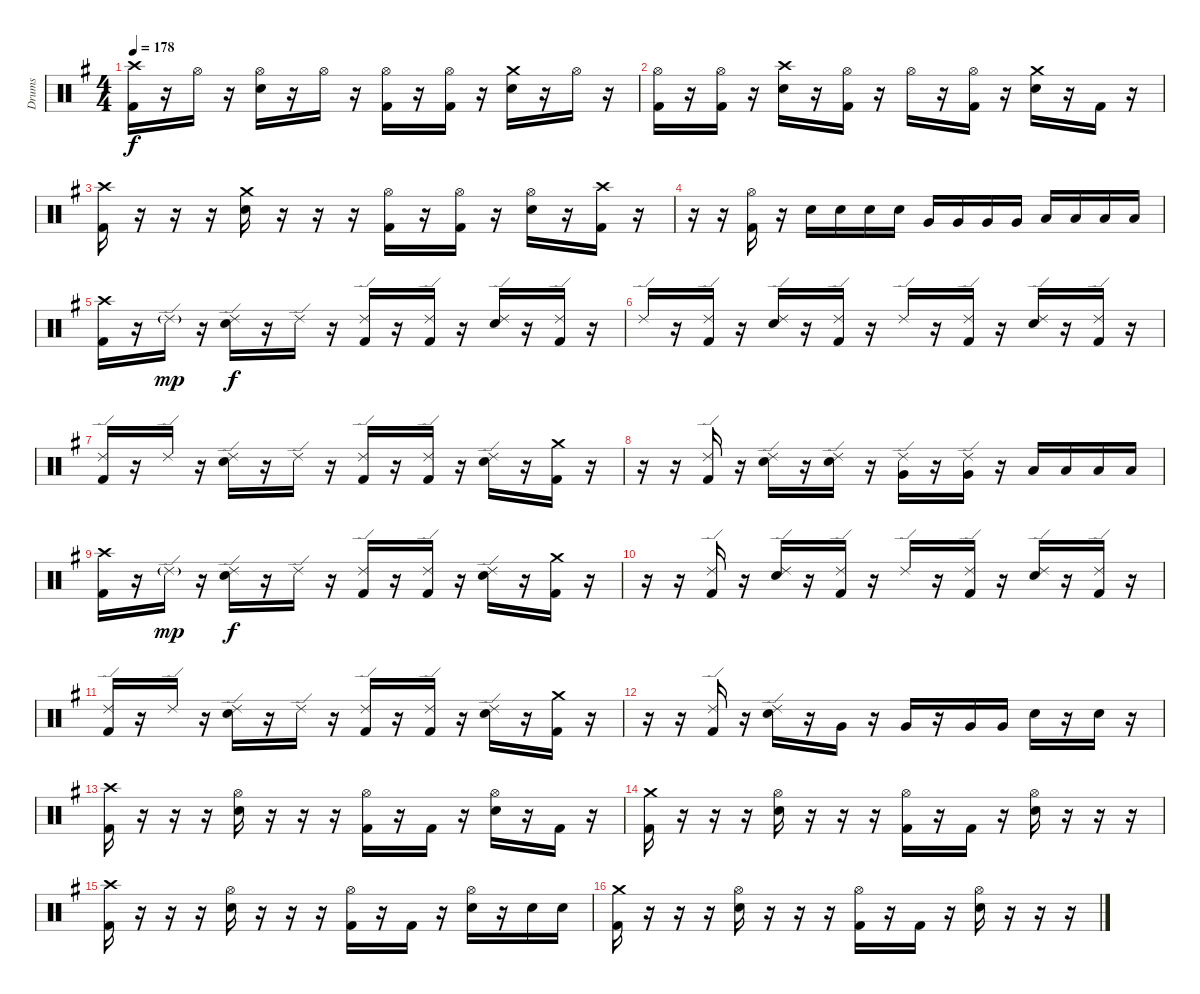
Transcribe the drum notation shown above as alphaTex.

\track ("Drums" "Drums") {instrument percussion}
\staff {score}
\articulation defaults
\ts (4 4)
\tempo 178
\clef neutral
\ks g
("Crash high (hit)" "Kick (hit) 2").16{dy f} r.16 "Hi-Hat (open)".16 r.16 ("Hi-Hat (open)" "Electric Snare (hit)").16 r.16 "Hi-Hat (open)".16 r.16 ("Hi-Hat (open)" "Kick (hit) 2").16 r.16 ("Hi-Hat (open)" "Kick (hit) 2").16 r.16 ("Crash medium (hit)" "Electric Snare (hit)").16 r.16 "Hi-Hat (open)".16 r.16 |
("Hi-Hat (open)" "Kick (hit) 2").16 r.16 ("Hi-Hat (open)" "Kick (hit) 2").16 r.16 ("Crash high (hit)" "Electric Snare (hit)").16 r.16 ("Hi-Hat (open)" "Kick (hit) 2").16 r.16 "Hi-Hat (open)".16 r.16 ("Hi-Hat (open)" "Kick (hit) 2").16 r.16 ("Crash medium (hit)" "Electric Snare (hit)").16 r.16 "Kick (hit) 2".16 r.16 |
("Crash high (hit)" "Kick (hit) 2").16 r.16 r.16 r.16 ("Crash medium (hit)" "Electric Snare (hit)").16 r.16 r.16 r.16 ("Hi-Hat (open)" "Kick (hit) 2").16 r.16 ("Hi-Hat (open)" "Kick (hit) 2").16 r.16 ("Hi-Hat (open)" "Electric Snare (hit)").16 r.16 ("Crash high (hit)" "Kick (hit) 2").16 r.16 |
r.16 r.16 ("Hi-Hat (open)" "Kick (hit) 2").16 r.16 "Electric Snare (hit)".16 "Electric Snare (hit)".16 "Electric Snare (hit)".16 "Electric Snare (hit)".16 "Very Low Tom (hit)".16 "Very Low Tom (hit)".16 "Very Low Tom (hit)".16 "Very Low Tom (hit)".16 "Low Floor Tom (hit)".16 "Low Floor Tom (hit)".16 "Low Floor Tom (hit)".16 "Low Floor Tom (hit)".16 |
("Crash high (hit)" "Kick (hit) 2").16 r.16 "Ride (edge) 2"{g}.16{dy mp} r.16 ("Ride (edge) 2" "Electric Snare (hit)").16{dy f} r.16 "Ride (edge) 2".16 r.16 ("Ride (edge) 2" "Kick (hit) 2").16 r.16 ("Ride (edge) 2" "Kick (hit) 2").16 r.16 ("Ride (edge) 2" "Electric Snare (hit)").16 r.16 ("Ride (edge) 2" "Kick (hit) 2").16 r.16 |
"Ride (edge) 2".16 r.16 ("Ride (edge) 2" "Kick (hit) 2").16 r.16 ("Ride (edge) 2" "Electric Snare (hit)").16 r.16 ("Ride (edge) 2" "Kick (hit) 2").16 r.16 "Ride (edge) 2".16 r.16 ("Ride (edge) 2" "Kick (hit) 2").16 r.16 ("Ride (edge) 2" "Electric Snare (hit)").16 r.16 ("Ride (edge) 2" "Kick (hit) 2").16 r.16 |
("Ride (edge) 2" "Kick (hit) 2").16 r.16 "Ride (edge) 2".16 r.16 ("Ride (edge) 2" "Electric Snare (hit)").16 r.16 "Ride (edge) 2".16 r.16 ("Ride (edge) 2" "Kick (hit) 2").16 r.16 ("Ride (edge) 2" "Kick (hit) 2").16 r.16 ("Ride (edge) 2" "Electric Snare (hit)").16 r.16 ("Crash medium (hit)" "Kick (hit) 2").16 r.16 |
r.16 r.16 ("Ride (edge) 2" "Kick (hit) 2").16 r.16 ("Ride (edge) 2" "Electric Snare (hit)").16 r.16 ("Ride (edge) 2" "Electric Snare (hit)").16 r.16 ("Ride (edge) 2" "Very Low Tom (hit)").16 r.16 ("Ride (edge) 2" "Very Low Tom (hit)").16 r.16 "Low Floor Tom (hit)".16 "Low Floor Tom (hit)".16 "Low Floor Tom (hit)".16 "Low Floor Tom (hit)".16 |
("Crash high (hit)" "Kick (hit) 2").16 r.16 "Ride (edge) 2"{g}.16{dy mp} r.16 ("Ride (edge) 2" "Electric Snare (hit)").16{dy f} r.16 "Ride (edge) 2".16 r.16 ("Ride (edge) 2" "Kick (hit) 2").16 r.16 ("Ride (edge) 2" "Kick (hit) 2").16 r.16 ("Ride (edge) 2" "Electric Snare (hit)").16 r.16 ("Crash medium (hit)" "Kick (hit) 2").16 r.16 |
r.16 r.16 ("Ride (edge) 2" "Kick (hit) 2").16 r.16 ("Ride (edge) 2" "Electric Snare (hit)").16 r.16 ("Ride (edge) 2" "Kick (hit) 2").16 r.16 "Ride (edge) 2".16 r.16 ("Ride (edge) 2" "Kick (hit) 2").16 r.16 ("Ride (edge) 2" "Electric Snare (hit)").16 r.16 ("Ride (edge) 2" "Kick (hit) 2").16 r.16 |
("Ride (edge) 2" "Kick (hit) 2").16 r.16 "Ride (edge) 2".16 r.16 ("Ride (edge) 2" "Electric Snare (hit)").16 r.16 "Ride (edge) 2".16 r.16 ("Ride (edge) 2" "Kick (hit) 2").16 r.16 ("Ride (edge) 2" "Kick (hit) 2").16 r.16 ("Ride (edge) 2" "Electric Snare (hit)").16 r.16 ("Crash medium (hit)" "Kick (hit) 2").16 r.16 |
r.16 r.16 ("Ride (edge) 2" "Kick (hit) 2").16 r.16 ("Ride (edge) 2" "Electric Snare (hit)").16 r.16 "Very Low Tom (hit)".16 r.16 "Very Low Tom (hit)".16 r.16 "Very Low Tom (hit)".16 "Very Low Tom (hit)".16 "Electric Snare (hit)".16 r.16 "Electric Snare (hit)".16 r.16 |
("Crash high (hit)" "Kick (hit) 2").16 r.16 r.16 r.16 ("Hi-Hat (open)" "Electric Snare (hit)").16 r.16 r.16 r.16 ("Hi-Hat (open)" "Kick (hit) 2").16 r.16 "Kick (hit) 2".16 r.16 ("Hi-Hat (open)" "Electric Snare (hit)").16 r.16 "Kick (hit) 2".16 r.16 |
("Crash medium (hit)" "Kick (hit) 2").16 r.16 r.16 r.16 ("Hi-Hat (open)" "Electric Snare (hit)").16 r.16 r.16 r.16 ("Hi-Hat (open)" "Kick (hit) 2").16 r.16 "Kick (hit) 2".16 r.16 ("Hi-Hat (open)" "Electric Snare (hit)").16 r.16 r.16 r.16 |
("Crash high (hit)" "Kick (hit) 2").16 r.16 r.16 r.16 ("Hi-Hat (open)" "Electric Snare (hit)").16 r.16 r.16 r.16 ("Hi-Hat (open)" "Kick (hit) 2").16 r.16 "Kick (hit) 2".16 r.16 ("Hi-Hat (open)" "Electric Snare (hit)").16 r.16 "Electric Snare (hit)".16 "Electric Snare (hit)".16 |
("Crash medium (hit)" "Kick (hit) 2").16 r.16 r.16 r.16 ("Hi-Hat (open)" "Electric Snare (hit)").16 r.16 r.16 r.16 ("Hi-Hat (open)" "Kick (hit) 2").16 r.16 "Kick (hit) 2".16 r.16 ("Hi-Hat (open)" "Electric Snare (hit)").16 r.16 r.16 r.16
